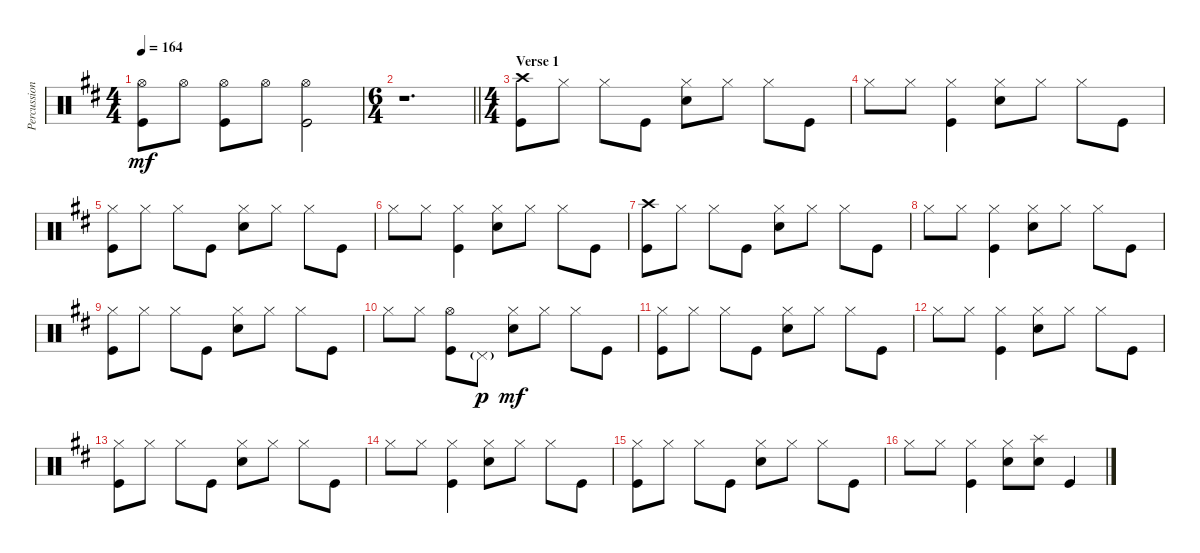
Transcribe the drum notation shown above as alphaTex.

\track ("Percussions" "Percussion") {instrument percussion}
\staff {score}
\articulation defaults
\ts (4 4)
\tempo 164
\clef neutral
\ks bminor
("Hi-Hat (open)" "Kick (hit)").8{dy mf} "Hi-Hat (open)".8 ("Hi-Hat (open)" "Kick (hit)").8 "Hi-Hat (open)".8 ("Hi-Hat (open)" "Kick (hit)").2 |
\ts (6 4)
\barLineRight lightlight
r.1{d} |
\ts (4 4)
\section ("" "Verse 1")
("Crash high (hit)" "Kick (hit)").8 "Hi-Hat (closed)".8 "Hi-Hat (closed)".8 "Kick (hit)".8 ("Hi-Hat (closed)" "Electric Snare (hit)").8 "Hi-Hat (closed)".8 "Hi-Hat (closed)".8 "Kick (hit)".8 |
"Hi-Hat (closed)".8 "Hi-Hat (closed)".8 ("Hi-Hat (closed)" "Kick (hit)").4 ("Hi-Hat (closed)" "Electric Snare (hit)").8 "Hi-Hat (closed)".8 "Hi-Hat (closed)".8 "Kick (hit)".8 |
("Hi-Hat (closed)" "Kick (hit)").8 "Hi-Hat (closed)".8 "Hi-Hat (closed)".8 "Kick (hit)".8 ("Hi-Hat (closed)" "Electric Snare (hit)").8 "Hi-Hat (closed)".8 "Hi-Hat (closed)".8 "Kick (hit)".8 |
"Hi-Hat (closed)".8 "Hi-Hat (closed)".8 ("Hi-Hat (closed)" "Kick (hit)").4 ("Hi-Hat (closed)" "Electric Snare (hit)").8 "Hi-Hat (closed)".8 "Hi-Hat (closed)".8 "Kick (hit)".8 |
("Crash high (hit)" "Kick (hit)").8 "Hi-Hat (closed)".8 "Hi-Hat (closed)".8 "Kick (hit)".8 ("Hi-Hat (closed)" "Electric Snare (hit)").8 "Hi-Hat (closed)".8 "Hi-Hat (closed)".8 "Kick (hit)".8 |
"Hi-Hat (closed)".8 "Hi-Hat (closed)".8 ("Hi-Hat (closed)" "Kick (hit)").4 ("Hi-Hat (closed)" "Electric Snare (hit)").8 "Hi-Hat (closed)".8 "Hi-Hat (closed)".8 "Kick (hit)".8 |
("Hi-Hat (closed)" "Kick (hit)").8 "Hi-Hat (closed)".8 "Hi-Hat (closed)".8 "Kick (hit)".8 ("Hi-Hat (closed)" "Electric Snare (hit)").8 "Hi-Hat (closed)".8 "Hi-Hat (closed)".8 "Kick (hit)".8 |
"Hi-Hat (closed)".8 "Hi-Hat (closed)".8 ("Hi-Hat (open)" "Kick (hit)").8 "Pedal Hi-Hat (hit)"{g}.8{dy p} ("Hi-Hat (closed)" "Electric Snare (hit)").8{dy mf} "Hi-Hat (closed)".8 "Hi-Hat (closed)".8 "Kick (hit)".8 |
("Hi-Hat (closed)" "Kick (hit)").8 "Hi-Hat (closed)".8 "Hi-Hat (closed)".8 "Kick (hit)".8 ("Hi-Hat (closed)" "Electric Snare (hit)").8 "Hi-Hat (closed)".8 "Hi-Hat (closed)".8 "Kick (hit)".8 |
"Hi-Hat (closed)".8 "Hi-Hat (closed)".8 ("Hi-Hat (closed)" "Kick (hit)").4 ("Hi-Hat (closed)" "Electric Snare (hit)").8 "Hi-Hat (closed)".8 "Hi-Hat (closed)".8 "Kick (hit)".8 |
("Hi-Hat (closed)" "Kick (hit)").8 "Hi-Hat (closed)".8 "Hi-Hat (closed)".8 "Kick (hit)".8 ("Hi-Hat (closed)" "Electric Snare (hit)").8 "Hi-Hat (closed)".8 "Hi-Hat (closed)".8 "Kick (hit)".8 |
"Hi-Hat (closed)".8 "Hi-Hat (closed)".8 ("Hi-Hat (closed)" "Kick (hit)").4 ("Hi-Hat (closed)" "Electric Snare (hit)").8 "Hi-Hat (closed)".8 "Hi-Hat (closed)".8 "Kick (hit)".8 |
("Hi-Hat (closed)" "Kick (hit)").8 "Hi-Hat (closed)".8 "Hi-Hat (closed)".8 "Kick (hit)".8 ("Hi-Hat (closed)" "Electric Snare (hit)").8 "Hi-Hat (closed)".8 "Hi-Hat (closed)".8 "Kick (hit)".8 |
"Hi-Hat (closed)".8 "Hi-Hat (closed)".8 ("Hi-Hat (closed)" "Kick (hit)").4 ("Hi-Hat (closed)" "Electric Snare (hit)").8 ("Splash (hit)" "Electric Snare (hit)").8 "Kick (hit)".4
